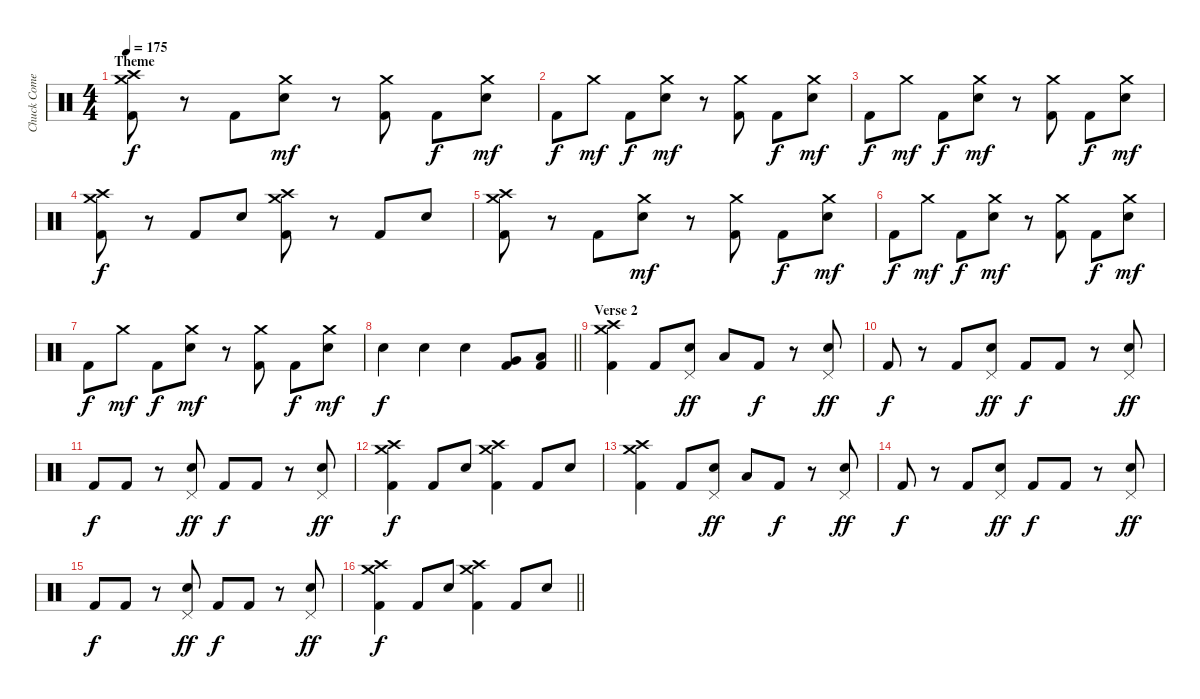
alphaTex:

\track ("Chuck Comeau" "Chuck Come") {instrument percussion}
\staff {score}
\articulation defaults
\ts (4 4)
\section ("" "Theme")
\tempo 175
\clef neutral
\ks c
("Crash high (hit)" "Crash medium (hit)" "Kick (hit) 2").8{dy f} r.8 "Kick (hit) 2".8 ("Crash medium (hit)" "Electric Snare (hit)").8{dy mf} r.8 ("Crash medium (hit)" "Kick (hit) 2").8 "Kick (hit) 2".8{dy f} ("Crash medium (hit)" "Electric Snare (hit)").8{dy mf} |
"Kick (hit) 2".8{dy f} "Crash medium (hit)".8{dy mf} "Kick (hit) 2".8{dy f} ("Crash medium (hit)" "Electric Snare (hit)").8{dy mf} r.8 ("Crash medium (hit)" "Kick (hit) 2").8 "Kick (hit) 2".8{dy f} ("Crash medium (hit)" "Electric Snare (hit)").8{dy mf} |
"Kick (hit) 2".8{dy f} "Crash medium (hit)".8{dy mf} "Kick (hit) 2".8{dy f} ("Crash medium (hit)" "Electric Snare (hit)").8{dy mf} r.8 ("Crash medium (hit)" "Kick (hit) 2").8 "Kick (hit) 2".8{dy f} ("Crash medium (hit)" "Electric Snare (hit)").8{dy mf} |
("Crash high (hit)" "Crash medium (hit)" "Kick (hit) 2").8{dy f} r.8 "Kick (hit) 2".8 "Electric Snare (hit)".8 ("Crash high (hit)" "Crash medium (hit)" "Kick (hit) 2").8 r.8 "Kick (hit) 2".8 "Electric Snare (hit)".8 |
("Crash high (hit)" "Crash medium (hit)" "Kick (hit) 2").8 r.8 "Kick (hit) 2".8 ("Crash medium (hit)" "Electric Snare (hit)").8{dy mf} r.8 ("Crash medium (hit)" "Kick (hit) 2").8 "Kick (hit) 2".8{dy f} ("Crash medium (hit)" "Electric Snare (hit)").8{dy mf} |
"Kick (hit) 2".8{dy f} "Crash medium (hit)".8{dy mf} "Kick (hit) 2".8{dy f} ("Crash medium (hit)" "Electric Snare (hit)").8{dy mf} r.8 ("Crash medium (hit)" "Kick (hit) 2").8 "Kick (hit) 2".8{dy f} ("Crash medium (hit)" "Electric Snare (hit)").8{dy mf} |
"Kick (hit) 2".8{dy f} "Crash medium (hit)".8{dy mf} "Kick (hit) 2".8{dy f} ("Crash medium (hit)" "Electric Snare (hit)").8{dy mf} r.8 ("Crash medium (hit)" "Kick (hit) 2").8 "Kick (hit) 2".8{dy f} ("Crash medium (hit)" "Electric Snare (hit)").8{dy mf} |
\barLineRight lightlight "Electric Snare (hit)".4{dy f} "Electric Snare (hit)".4 "Electric Snare (hit)".4
("Very Low Tom (hit)" "Kick (hit) 2").8 ("Low Floor Tom (hit)" "Kick (hit) 2").8 |
\section ("" "Verse 2")
("Crash high (hit)" "Crash medium (hit)" "Kick (hit) 2").4 "Kick (hit) 2".8 ("Pedal Hi-Hat (hit)" "Electric Snare (hit)").8{dy ff} "Low Floor Tom (hit)".8 "Kick (hit) 2".8{dy f} r.8 ("Pedal Hi-Hat (hit)" "Electric Snare (hit)").8{dy ff} |
"Kick (hit) 2".8{dy f} r.8 "Kick (hit) 2".8 ("Pedal Hi-Hat (hit)" "Electric Snare (hit)").8{dy ff} "Kick (hit) 2".8{dy f} "Kick (hit) 2".8 r.8 ("Pedal Hi-Hat (hit)" "Electric Snare (hit)").8{dy ff} |
"Kick (hit) 2".8{dy f} "Kick (hit) 2".8 r.8 ("Pedal Hi-Hat (hit)" "Electric Snare (hit)").8{dy ff} "Kick (hit) 2".8{dy f} "Kick (hit) 2".8 r.8 ("Pedal Hi-Hat (hit)" "Electric Snare (hit)").8{dy ff} |
("Crash high (hit)" "Crash medium (hit)" "Kick (hit) 2").4{dy f} "Kick (hit) 2".8 "Electric Snare (hit)".8 ("Crash high (hit)" "Crash medium (hit)" "Kick (hit) 2").4 "Kick (hit) 2".8 "Electric Snare (hit)".8 |
("Crash high (hit)" "Crash medium (hit)" "Kick (hit) 2").4 "Kick (hit) 2".8 ("Pedal Hi-Hat (hit)" "Electric Snare (hit)").8{dy ff} "Low Floor Tom (hit)".8 "Kick (hit) 2".8{dy f} r.8 ("Pedal Hi-Hat (hit)" "Electric Snare (hit)").8{dy ff} |
"Kick (hit) 2".8{dy f} r.8 "Kick (hit) 2".8 ("Pedal Hi-Hat (hit)" "Electric Snare (hit)").8{dy ff} "Kick (hit) 2".8{dy f} "Kick (hit) 2".8 r.8 ("Pedal Hi-Hat (hit)" "Electric Snare (hit)").8{dy ff} |
"Kick (hit) 2".8{dy f} "Kick (hit) 2".8 r.8 ("Pedal Hi-Hat (hit)" "Electric Snare (hit)").8{dy ff} "Kick (hit) 2".8{dy f} "Kick (hit) 2".8 r.8 ("Pedal Hi-Hat (hit)" "Electric Snare (hit)").8{dy ff} |
\barLineRight lightlight
("Crash high (hit)" "Crash medium (hit)" "Kick (hit) 2").4{dy f} "Kick (hit) 2".8 "Electric Snare (hit)".8 ("Crash high (hit)" "Crash medium (hit)" "Kick (hit) 2").4 "Kick (hit) 2".8 "Electric Snare (hit)".8
